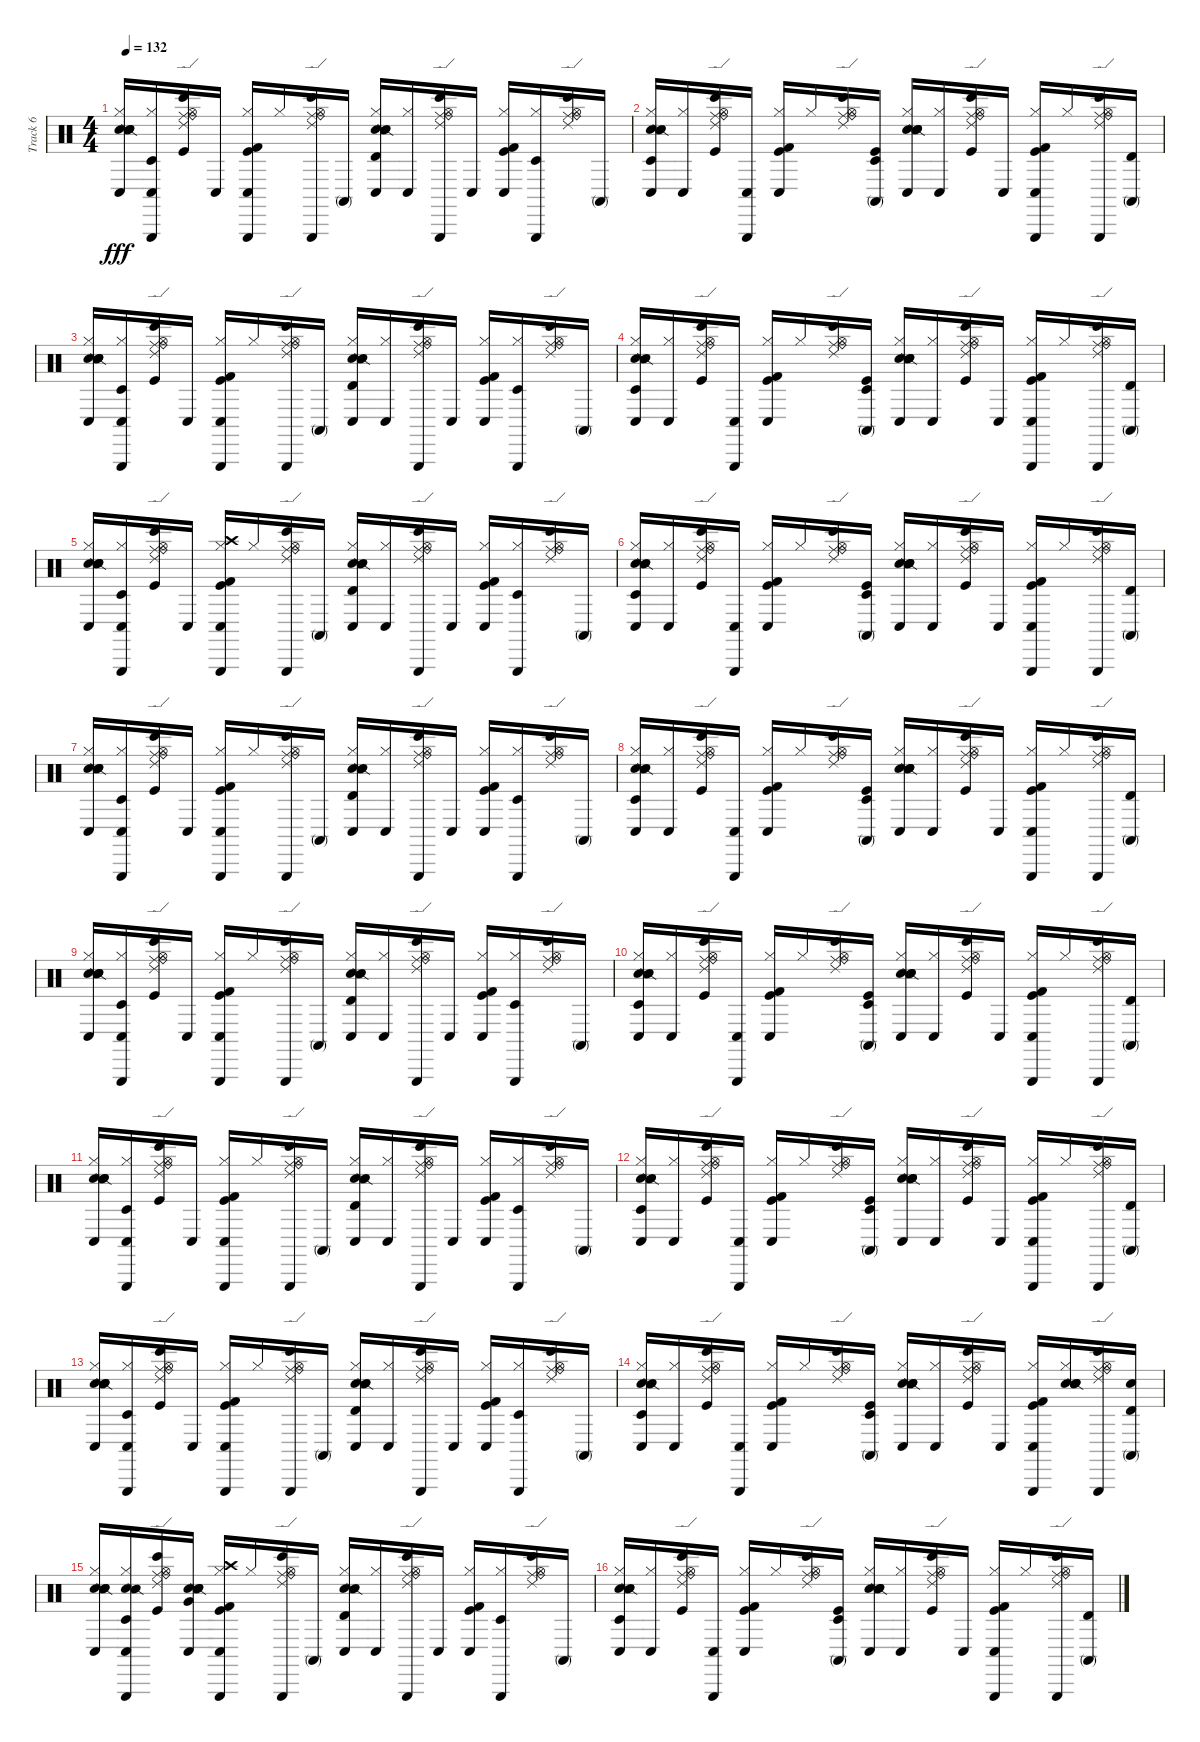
\track ("Track 6" "Track 6") {instrument percussion}
\staff {score}
\articulation defaults
\ts (4 4)
\tempo 132
\clef neutral
\ks c
("Metronome (bell)" "Snare (side stick) 2" "Electric Snare (hit)" "Hi-Hat (closed)" "Conga low (hit)" "Hand Clap (hit)").16{dy fff} ("Hi-Hat (closed)" "Conga low (hit)" "Timbale low (hit)" "Triangle (hit)").16 ("Kick (hit)" "Hi-Hat (open)" "Bongo High (hit)" "Ride (middle)" "Ride (edge) 2" "Ride (bell)").16 "Conga low (hit)".16 ("Hi-Hat (closed)" "Kick (hit)" "Kick (hit) 2" "Conga low (hit)" "Triangle (hit)").16 "Hi-Hat (closed)".16 ("Hi-Hat (open)" "Bongo High (hit)" "Ride (middle)" "Ride (edge) 2" "Ride (bell)" "Triangle (hit)").16 "Conga high (mute)".16 ("Hi-Hat (closed)" "Metronome (bell)" "Snare (side stick) 2" "Electric Snare (hit)" "Conga low (hit)" "Timbale high (hit)").16 ("Hi-Hat (closed)" "Conga low (hit)").16 ("Hi-Hat (open)" "Bongo High (hit)" "Ride (middle)" "Ride (edge) 2" "Ride (bell)" "Triangle (hit)").16 "Conga low (hit)".16 ("Hi-Hat (closed)" "Kick (hit)" "Kick (hit) 2" "Conga low (hit)").16 ("Hi-Hat (closed)" "Timbale low (hit)" "Triangle (hit)").16 ("Hi-Hat (open)" "Bongo High (hit)" "Ride (middle)" "Ride (edge) 2" "Ride (bell)").16 "Conga high (mute)".16 |
("Hi-Hat (closed)" "Metronome (bell)" "Snare (side stick) 2" "Electric Snare (hit)" "Conga low (hit)" "Timbale low (hit)").16 ("Hi-Hat (closed)" "Conga low (hit)").16 ("Hi-Hat (open)" "Kick (hit)" "Bongo High (hit)" "Ride (middle)" "Ride (edge) 2" "Ride (bell)").16 ("Conga low (hit)" "Triangle (hit)").16 ("Kick (hit)" "Kick (hit) 2" "Hi-Hat (closed)" "Conga low (hit)").16 "Hi-Hat (closed)".16 ("Hi-Hat (open)" "Bongo High (hit)" "Ride (middle)" "Ride (edge) 2" "Ride (bell)").16 ("Kick (hit)" "Conga high (mute)" "Timbale low (hit)").16 ("Metronome (bell)" "Snare (side stick) 2" "Electric Snare (hit)" "Hi-Hat (closed)" "Conga low (hit)" "Hand Clap (hit)").16 ("Hi-Hat (closed)" "Conga low (hit)").16 ("Kick (hit)" "Hi-Hat (open)" "Bongo High (hit)" "Ride (middle)" "Ride (edge) 2" "Ride (bell)").16 "Conga low (hit)".16 ("Kick (hit)" "Kick (hit) 2" "Hi-Hat (closed)" "Conga low (hit)" "Triangle (hit)").16 "Hi-Hat (closed)".16 ("Hi-Hat (open)" "Bongo High (hit)" "Ride (middle)" "Ride (edge) 2" "Ride (bell)" "Triangle (hit)").16 ("Conga high (mute)" "Timbale high (hit)").16 |
("Metronome (bell)" "Snare (side stick) 2" "Electric Snare (hit)" "Hi-Hat (closed)" "Conga low (hit)" "Hand Clap (hit)").16 ("Hi-Hat (closed)" "Conga low (hit)" "Timbale low (hit)" "Triangle (hit)").16 ("Kick (hit)" "Hi-Hat (open)" "Bongo High (hit)" "Ride (middle)" "Ride (edge) 2" "Ride (bell)").16 "Conga low (hit)".16 ("Hi-Hat (closed)" "Kick (hit)" "Kick (hit) 2" "Conga low (hit)" "Triangle (hit)").16 "Hi-Hat (closed)".16 ("Hi-Hat (open)" "Bongo High (hit)" "Ride (middle)" "Ride (edge) 2" "Ride (bell)" "Triangle (hit)").16 "Conga high (mute)".16 ("Hi-Hat (closed)" "Metronome (bell)" "Snare (side stick) 2" "Electric Snare (hit)" "Conga low (hit)" "Timbale high (hit)").16 ("Hi-Hat (closed)" "Conga low (hit)").16 ("Hi-Hat (open)" "Bongo High (hit)" "Ride (middle)" "Ride (edge) 2" "Ride (bell)" "Triangle (hit)").16 "Conga low (hit)".16 ("Hi-Hat (closed)" "Kick (hit)" "Kick (hit) 2" "Conga low (hit)").16 ("Hi-Hat (closed)" "Timbale low (hit)" "Triangle (hit)").16 ("Hi-Hat (open)" "Bongo High (hit)" "Ride (middle)" "Ride (edge) 2" "Ride (bell)").16 "Conga high (mute)".16 |
("Hi-Hat (closed)" "Metronome (bell)" "Snare (side stick) 2" "Electric Snare (hit)" "Conga low (hit)" "Timbale low (hit)").16 ("Hi-Hat (closed)" "Conga low (hit)").16 ("Hi-Hat (open)" "Kick (hit)" "Bongo High (hit)" "Ride (middle)" "Ride (edge) 2" "Ride (bell)").16 ("Conga low (hit)" "Triangle (hit)").16 ("Kick (hit)" "Kick (hit) 2" "Hi-Hat (closed)" "Conga low (hit)").16 "Hi-Hat (closed)".16 ("Hi-Hat (open)" "Bongo High (hit)" "Ride (middle)" "Ride (edge) 2" "Ride (bell)").16 ("Kick (hit)" "Conga high (mute)" "Timbale low (hit)").16 ("Metronome (bell)" "Snare (side stick) 2" "Electric Snare (hit)" "Hi-Hat (closed)" "Conga low (hit)" "Hand Clap (hit)").16 ("Hi-Hat (closed)" "Conga low (hit)").16 ("Kick (hit)" "Hi-Hat (open)" "Bongo High (hit)" "Ride (middle)" "Ride (edge) 2" "Ride (bell)").16 "Conga low (hit)".16 ("Kick (hit)" "Kick (hit) 2" "Hi-Hat (closed)" "Conga low (hit)" "Triangle (hit)").16 "Hi-Hat (closed)".16 ("Hi-Hat (open)" "Bongo High (hit)" "Ride (middle)" "Ride (edge) 2" "Ride (bell)" "Triangle (hit)").16 ("Conga high (mute)" "Timbale high (hit)").16 |
("Metronome (bell)" "Snare (side stick) 2" "Electric Snare (hit)" "Hi-Hat (closed)" "Conga low (hit)" "Hand Clap (hit)").16 ("Hi-Hat (closed)" "Conga low (hit)" "Timbale low (hit)" "Triangle (hit)").16 ("Kick (hit)" "Hi-Hat (open)" "Bongo High (hit)" "Ride (middle)" "Ride (edge) 2" "Ride (bell)").16 "Conga low (hit)".16 ("Hi-Hat (closed)" "Kick (hit)" "Kick (hit) 2" "Conga low (hit)" "Triangle (hit)" "Crash high (hit)").16 "Hi-Hat (closed)".16 ("Hi-Hat (open)" "Bongo High (hit)" "Ride (middle)" "Ride (edge) 2" "Ride (bell)" "Triangle (hit)").16 "Conga high (mute)".16 ("Hi-Hat (closed)" "Metronome (bell)" "Snare (side stick) 2" "Electric Snare (hit)" "Conga low (hit)" "Timbale high (hit)").16 ("Hi-Hat (closed)" "Conga low (hit)").16 ("Hi-Hat (open)" "Bongo High (hit)" "Ride (middle)" "Ride (edge) 2" "Ride (bell)" "Triangle (hit)").16 "Conga low (hit)".16 ("Hi-Hat (closed)" "Kick (hit)" "Kick (hit) 2" "Conga low (hit)").16 ("Hi-Hat (closed)" "Timbale low (hit)" "Triangle (hit)").16 ("Hi-Hat (open)" "Bongo High (hit)" "Ride (middle)" "Ride (edge) 2" "Ride (bell)").16 "Conga high (mute)".16 |
("Hi-Hat (closed)" "Metronome (bell)" "Snare (side stick) 2" "Electric Snare (hit)" "Conga low (hit)" "Timbale low (hit)").16 ("Hi-Hat (closed)" "Conga low (hit)").16 ("Hi-Hat (open)" "Kick (hit)" "Bongo High (hit)" "Ride (middle)" "Ride (edge) 2" "Ride (bell)").16 ("Conga low (hit)" "Triangle (hit)").16 ("Kick (hit)" "Kick (hit) 2" "Hi-Hat (closed)" "Conga low (hit)").16 "Hi-Hat (closed)".16 ("Hi-Hat (open)" "Bongo High (hit)" "Ride (middle)" "Ride (edge) 2" "Ride (bell)").16 ("Kick (hit)" "Conga high (mute)" "Timbale low (hit)").16 ("Metronome (bell)" "Snare (side stick) 2" "Electric Snare (hit)" "Hi-Hat (closed)" "Conga low (hit)" "Hand Clap (hit)").16 ("Hi-Hat (closed)" "Conga low (hit)").16 ("Kick (hit)" "Hi-Hat (open)" "Bongo High (hit)" "Ride (middle)" "Ride (edge) 2" "Ride (bell)").16 "Conga low (hit)".16 ("Kick (hit)" "Kick (hit) 2" "Hi-Hat (closed)" "Conga low (hit)" "Triangle (hit)").16 "Hi-Hat (closed)".16 ("Hi-Hat (open)" "Bongo High (hit)" "Ride (middle)" "Ride (edge) 2" "Ride (bell)" "Triangle (hit)").16 ("Conga high (mute)" "Timbale high (hit)").16 |
("Metronome (bell)" "Snare (side stick) 2" "Electric Snare (hit)" "Hi-Hat (closed)" "Conga low (hit)" "Hand Clap (hit)").16 ("Hi-Hat (closed)" "Conga low (hit)" "Timbale low (hit)" "Triangle (hit)").16 ("Kick (hit)" "Hi-Hat (open)" "Bongo High (hit)" "Ride (middle)" "Ride (edge) 2" "Ride (bell)").16 "Conga low (hit)".16 ("Hi-Hat (closed)" "Kick (hit)" "Kick (hit) 2" "Conga low (hit)" "Triangle (hit)").16 "Hi-Hat (closed)".16 ("Hi-Hat (open)" "Bongo High (hit)" "Ride (middle)" "Ride (edge) 2" "Ride (bell)" "Triangle (hit)").16 "Conga high (mute)".16 ("Hi-Hat (closed)" "Metronome (bell)" "Snare (side stick) 2" "Electric Snare (hit)" "Conga low (hit)" "Timbale high (hit)").16 ("Hi-Hat (closed)" "Conga low (hit)").16 ("Hi-Hat (open)" "Bongo High (hit)" "Ride (middle)" "Ride (edge) 2" "Ride (bell)" "Triangle (hit)").16 "Conga low (hit)".16 ("Hi-Hat (closed)" "Kick (hit)" "Kick (hit) 2" "Conga low (hit)").16 ("Hi-Hat (closed)" "Timbale low (hit)" "Triangle (hit)").16 ("Hi-Hat (open)" "Bongo High (hit)" "Ride (middle)" "Ride (edge) 2" "Ride (bell)").16 "Conga high (mute)".16 |
("Hi-Hat (closed)" "Metronome (bell)" "Snare (side stick) 2" "Electric Snare (hit)" "Conga low (hit)" "Timbale low (hit)").16 ("Hi-Hat (closed)" "Conga low (hit)").16 ("Hi-Hat (open)" "Kick (hit)" "Bongo High (hit)" "Ride (middle)" "Ride (edge) 2" "Ride (bell)").16 ("Conga low (hit)" "Triangle (hit)").16 ("Kick (hit)" "Kick (hit) 2" "Hi-Hat (closed)" "Conga low (hit)").16 "Hi-Hat (closed)".16 ("Hi-Hat (open)" "Bongo High (hit)" "Ride (middle)" "Ride (edge) 2" "Ride (bell)").16 ("Kick (hit)" "Conga high (mute)" "Timbale low (hit)").16 ("Metronome (bell)" "Snare (side stick) 2" "Electric Snare (hit)" "Hi-Hat (closed)" "Conga low (hit)" "Hand Clap (hit)").16 ("Hi-Hat (closed)" "Conga low (hit)").16 ("Kick (hit)" "Hi-Hat (open)" "Bongo High (hit)" "Ride (middle)" "Ride (edge) 2" "Ride (bell)").16 "Conga low (hit)".16 ("Kick (hit)" "Kick (hit) 2" "Hi-Hat (closed)" "Conga low (hit)" "Triangle (hit)").16 "Hi-Hat (closed)".16 ("Hi-Hat (open)" "Bongo High (hit)" "Ride (middle)" "Ride (edge) 2" "Ride (bell)" "Triangle (hit)").16 ("Conga high (mute)" "Timbale high (hit)").16 |
("Metronome (bell)" "Snare (side stick) 2" "Electric Snare (hit)" "Hi-Hat (closed)" "Conga low (hit)" "Hand Clap (hit)").16 ("Hi-Hat (closed)" "Conga low (hit)" "Timbale low (hit)" "Triangle (hit)").16 ("Kick (hit)" "Hi-Hat (open)" "Bongo High (hit)" "Ride (middle)" "Ride (edge) 2" "Ride (bell)").16 "Conga low (hit)".16 ("Hi-Hat (closed)" "Kick (hit)" "Kick (hit) 2" "Conga low (hit)" "Triangle (hit)").16 "Hi-Hat (closed)".16 ("Hi-Hat (open)" "Bongo High (hit)" "Ride (middle)" "Ride (edge) 2" "Ride (bell)" "Triangle (hit)").16 "Conga high (mute)".16 ("Hi-Hat (closed)" "Metronome (bell)" "Snare (side stick) 2" "Electric Snare (hit)" "Conga low (hit)" "Timbale high (hit)").16 ("Hi-Hat (closed)" "Conga low (hit)").16 ("Hi-Hat (open)" "Bongo High (hit)" "Ride (middle)" "Ride (edge) 2" "Ride (bell)" "Triangle (hit)").16 "Conga low (hit)".16 ("Hi-Hat (closed)" "Kick (hit)" "Kick (hit) 2" "Conga low (hit)").16 ("Hi-Hat (closed)" "Timbale low (hit)" "Triangle (hit)").16 ("Hi-Hat (open)" "Bongo High (hit)" "Ride (middle)" "Ride (edge) 2" "Ride (bell)").16 "Conga high (mute)".16 |
("Hi-Hat (closed)" "Metronome (bell)" "Snare (side stick) 2" "Electric Snare (hit)" "Conga low (hit)" "Timbale low (hit)").16 ("Hi-Hat (closed)" "Conga low (hit)").16 ("Hi-Hat (open)" "Kick (hit)" "Bongo High (hit)" "Ride (middle)" "Ride (edge) 2" "Ride (bell)").16 ("Conga low (hit)" "Triangle (hit)").16 ("Kick (hit)" "Kick (hit) 2" "Hi-Hat (closed)" "Conga low (hit)").16 "Hi-Hat (closed)".16 ("Hi-Hat (open)" "Bongo High (hit)" "Ride (middle)" "Ride (edge) 2" "Ride (bell)").16 ("Kick (hit)" "Conga high (mute)" "Timbale low (hit)").16 ("Metronome (bell)" "Snare (side stick) 2" "Electric Snare (hit)" "Hi-Hat (closed)" "Conga low (hit)" "Hand Clap (hit)").16 ("Hi-Hat (closed)" "Conga low (hit)").16 ("Kick (hit)" "Hi-Hat (open)" "Bongo High (hit)" "Ride (middle)" "Ride (edge) 2" "Ride (bell)").16 "Conga low (hit)".16 ("Kick (hit)" "Kick (hit) 2" "Hi-Hat (closed)" "Conga low (hit)" "Triangle (hit)").16 "Hi-Hat (closed)".16 ("Hi-Hat (open)" "Bongo High (hit)" "Ride (middle)" "Ride (edge) 2" "Ride (bell)" "Triangle (hit)").16 ("Conga high (mute)" "Timbale high (hit)").16 |
("Metronome (bell)" "Snare (side stick) 2" "Electric Snare (hit)" "Hi-Hat (closed)" "Conga low (hit)" "Hand Clap (hit)").16 ("Hi-Hat (closed)" "Conga low (hit)" "Timbale low (hit)" "Triangle (hit)").16 ("Kick (hit)" "Hi-Hat (open)" "Bongo High (hit)" "Ride (middle)" "Ride (edge) 2" "Ride (bell)").16 "Conga low (hit)".16 ("Hi-Hat (closed)" "Kick (hit)" "Kick (hit) 2" "Conga low (hit)" "Triangle (hit)").16 "Hi-Hat (closed)".16 ("Hi-Hat (open)" "Bongo High (hit)" "Ride (middle)" "Ride (edge) 2" "Ride (bell)" "Triangle (hit)").16 "Conga high (mute)".16 ("Hi-Hat (closed)" "Metronome (bell)" "Snare (side stick) 2" "Electric Snare (hit)" "Conga low (hit)" "Timbale high (hit)").16 ("Hi-Hat (closed)" "Conga low (hit)").16 ("Hi-Hat (open)" "Bongo High (hit)" "Ride (middle)" "Ride (edge) 2" "Ride (bell)" "Triangle (hit)").16 "Conga low (hit)".16 ("Hi-Hat (closed)" "Kick (hit)" "Kick (hit) 2" "Conga low (hit)").16 ("Hi-Hat (closed)" "Timbale low (hit)" "Triangle (hit)").16 ("Hi-Hat (open)" "Bongo High (hit)" "Ride (middle)" "Ride (edge) 2" "Ride (bell)").16 "Conga high (mute)".16 |
("Hi-Hat (closed)" "Metronome (bell)" "Snare (side stick) 2" "Electric Snare (hit)" "Conga low (hit)" "Timbale low (hit)").16 ("Hi-Hat (closed)" "Conga low (hit)").16 ("Hi-Hat (open)" "Kick (hit)" "Bongo High (hit)" "Ride (middle)" "Ride (edge) 2" "Ride (bell)").16 ("Conga low (hit)" "Triangle (hit)").16 ("Kick (hit)" "Kick (hit) 2" "Hi-Hat (closed)" "Conga low (hit)").16 "Hi-Hat (closed)".16 ("Hi-Hat (open)" "Bongo High (hit)" "Ride (middle)" "Ride (edge) 2" "Ride (bell)").16 ("Kick (hit)" "Conga high (mute)" "Timbale low (hit)").16 ("Metronome (bell)" "Snare (side stick) 2" "Electric Snare (hit)" "Hi-Hat (closed)" "Conga low (hit)" "Hand Clap (hit)").16 ("Hi-Hat (closed)" "Conga low (hit)").16 ("Kick (hit)" "Hi-Hat (open)" "Bongo High (hit)" "Ride (middle)" "Ride (edge) 2" "Ride (bell)").16 "Conga low (hit)".16 ("Kick (hit)" "Kick (hit) 2" "Hi-Hat (closed)" "Conga low (hit)" "Triangle (hit)").16 "Hi-Hat (closed)".16 ("Hi-Hat (open)" "Bongo High (hit)" "Ride (middle)" "Ride (edge) 2" "Ride (bell)" "Triangle (hit)").16 ("Conga high (mute)" "Timbale high (hit)").16 |
("Metronome (bell)" "Snare (side stick) 2" "Electric Snare (hit)" "Hi-Hat (closed)" "Conga low (hit)" "Hand Clap (hit)").16 ("Hi-Hat (closed)" "Conga low (hit)" "Timbale low (hit)" "Triangle (hit)").16 ("Kick (hit)" "Hi-Hat (open)" "Bongo High (hit)" "Ride (middle)" "Ride (edge) 2" "Ride (bell)").16 "Conga low (hit)".16 ("Hi-Hat (closed)" "Kick (hit)" "Kick (hit) 2" "Conga low (hit)" "Triangle (hit)").16 "Hi-Hat (closed)".16 ("Hi-Hat (open)" "Bongo High (hit)" "Ride (middle)" "Ride (edge) 2" "Ride (bell)" "Triangle (hit)").16 "Conga high (mute)".16 ("Hi-Hat (closed)" "Metronome (bell)" "Snare (side stick) 2" "Electric Snare (hit)" "Conga low (hit)" "Timbale high (hit)").16 ("Hi-Hat (closed)" "Conga low (hit)").16 ("Hi-Hat (open)" "Bongo High (hit)" "Ride (middle)" "Ride (edge) 2" "Ride (bell)" "Triangle (hit)").16 "Conga low (hit)".16 ("Hi-Hat (closed)" "Kick (hit)" "Kick (hit) 2" "Conga low (hit)").16 ("Hi-Hat (closed)" "Timbale low (hit)" "Triangle (hit)").16 ("Hi-Hat (open)" "Bongo High (hit)" "Ride (middle)" "Ride (edge) 2" "Ride (bell)").16 "Conga high (mute)".16 |
("Hi-Hat (closed)" "Metronome (bell)" "Snare (side stick) 2" "Electric Snare (hit)" "Conga low (hit)" "Timbale low (hit)").16 ("Hi-Hat (closed)" "Conga low (hit)").16 ("Hi-Hat (open)" "Kick (hit)" "Bongo High (hit)" "Ride (middle)" "Ride (edge) 2" "Ride (bell)").16 ("Conga low (hit)" "Triangle (hit)").16 ("Kick (hit)" "Kick (hit) 2" "Hi-Hat (closed)" "Conga low (hit)").16 "Hi-Hat (closed)".16 ("Hi-Hat (open)" "Bongo High (hit)" "Ride (middle)" "Ride (edge) 2" "Ride (bell)").16 ("Kick (hit)" "Conga high (mute)" "Timbale low (hit)").16 ("Metronome (bell)" "Snare (side stick) 2" "Electric Snare (hit)" "Hi-Hat (closed)" "Conga low (hit)" "Hand Clap (hit)").16 ("Hi-Hat (closed)" "Conga low (hit)").16 ("Kick (hit)" "Hi-Hat (open)" "Bongo High (hit)" "Ride (middle)" "Ride (edge) 2" "Ride (bell)").16 "Conga low (hit)".16 ("Kick (hit)" "Kick (hit) 2" "Hi-Hat (closed)" "Conga low (hit)" "Triangle (hit)").16 ("Hi-Hat (closed)" "Metronome (bell)" "Electric Snare (hit)" "Snare (side stick) 2" "Hand Clap (hit)").16 ("Hi-Hat (open)" "Bongo High (hit)" "Ride (middle)" "Ride (edge) 2" "Ride (bell)" "Triangle (hit)").16 ("Conga high (mute)" "Timbale high (hit)" "Hand Clap (hit)").16 |
("Metronome (bell)" "Snare (side stick) 2" "Electric Snare (hit)" "Hi-Hat (closed)" "Conga low (hit)" "Hand Clap (hit)").16 ("Hi-Hat (closed)" "Conga low (hit)" "Timbale low (hit)" "Triangle (hit)" "Metronome (bell)" "Snare (side stick) 2").16 ("Kick (hit)" "Hi-Hat (open)" "Bongo High (hit)" "Ride (middle)" "Ride (edge) 2" "Ride (bell)").16 ("Conga low (hit)" "Metronome (bell)" "Electric Snare (hit)" "Snare (side stick) 2" "Hand Clap (hit)" "Very Low Tom (hit)").16 ("Hi-Hat (closed)" "Kick (hit)" "Kick (hit) 2" "Conga low (hit)" "Triangle (hit)" "Crash high (hit)").16 "Hi-Hat (closed)".16 ("Hi-Hat (open)" "Bongo High (hit)" "Ride (middle)" "Ride (edge) 2" "Ride (bell)" "Triangle (hit)").16 "Conga high (mute)".16 ("Hi-Hat (closed)" "Metronome (bell)" "Snare (side stick) 2" "Electric Snare (hit)" "Conga low (hit)" "Timbale high (hit)").16 ("Hi-Hat (closed)" "Conga low (hit)").16 ("Hi-Hat (open)" "Bongo High (hit)" "Ride (middle)" "Ride (edge) 2" "Ride (bell)" "Triangle (hit)").16 "Conga low (hit)".16 ("Hi-Hat (closed)" "Kick (hit)" "Kick (hit) 2" "Conga low (hit)").16 ("Hi-Hat (closed)" "Timbale low (hit)" "Triangle (hit)").16 ("Hi-Hat (open)" "Bongo High (hit)" "Ride (middle)" "Ride (edge) 2" "Ride (bell)").16 "Conga high (mute)".16 |
("Hi-Hat (closed)" "Metronome (bell)" "Snare (side stick) 2" "Electric Snare (hit)" "Conga low (hit)" "Timbale low (hit)").16 ("Hi-Hat (closed)" "Conga low (hit)").16 ("Hi-Hat (open)" "Kick (hit)" "Bongo High (hit)" "Ride (middle)" "Ride (edge) 2" "Ride (bell)").16 ("Conga low (hit)" "Triangle (hit)").16 ("Kick (hit)" "Kick (hit) 2" "Hi-Hat (closed)" "Conga low (hit)").16 "Hi-Hat (closed)".16 ("Hi-Hat (open)" "Bongo High (hit)" "Ride (middle)" "Ride (edge) 2" "Ride (bell)").16 ("Kick (hit)" "Conga high (mute)" "Timbale low (hit)").16 ("Metronome (bell)" "Snare (side stick) 2" "Electric Snare (hit)" "Hi-Hat (closed)" "Conga low (hit)" "Hand Clap (hit)").16 ("Hi-Hat (closed)" "Conga low (hit)").16 ("Kick (hit)" "Hi-Hat (open)" "Bongo High (hit)" "Ride (middle)" "Ride (edge) 2" "Ride (bell)").16 "Conga low (hit)".16 ("Kick (hit)" "Kick (hit) 2" "Hi-Hat (closed)" "Conga low (hit)" "Triangle (hit)").16 "Hi-Hat (closed)".16 ("Hi-Hat (open)" "Bongo High (hit)" "Ride (middle)" "Ride (edge) 2" "Ride (bell)" "Triangle (hit)").16 ("Conga high (mute)" "Timbale high (hit)").16
